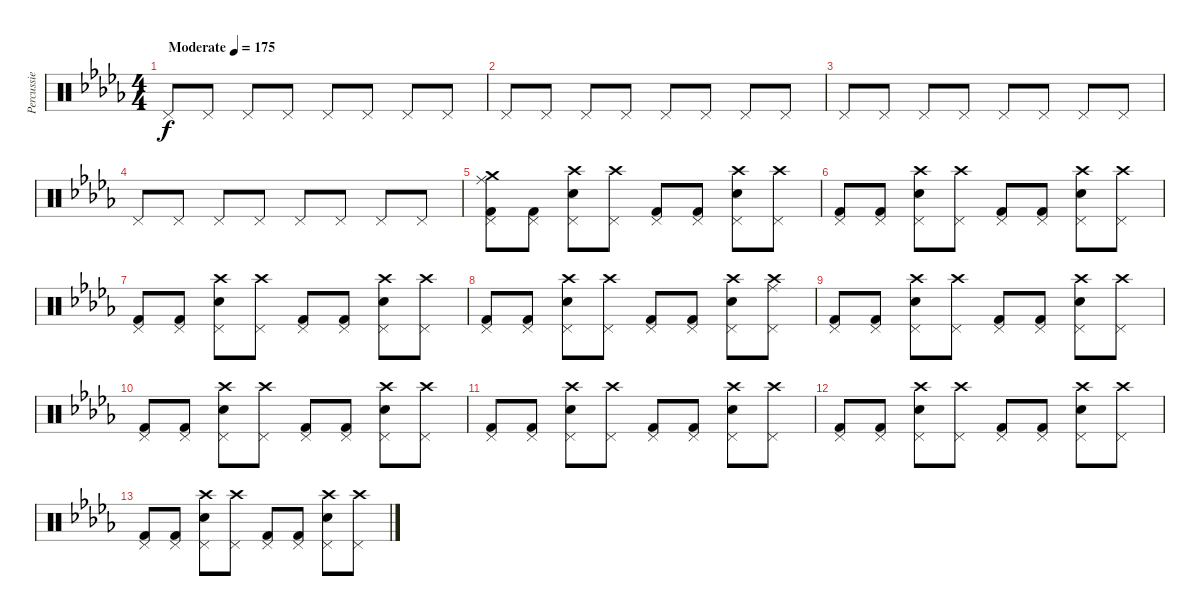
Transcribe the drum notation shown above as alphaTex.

\track ("Percussie" "Percussie") {instrument percussion}
\staff {score}
\articulation defaults
\ts (4 4)
\tempo (175 "Moderate")
\clef neutral
\ks db "Pedal Hi-Hat (hit)".8{dy f} "Pedal Hi-Hat (hit)".8 "Pedal Hi-Hat (hit)".8 "Pedal Hi-Hat (hit)".8 "Pedal Hi-Hat (hit)".8 "Pedal Hi-Hat (hit)".8 "Pedal Hi-Hat (hit)".8 "Pedal Hi-Hat (hit)".8
|
"Pedal Hi-Hat (hit)".8 "Pedal Hi-Hat (hit)".8 "Pedal Hi-Hat (hit)".8 "Pedal Hi-Hat (hit)".8 "Pedal Hi-Hat (hit)".8 "Pedal Hi-Hat (hit)".8 "Pedal Hi-Hat (hit)".8 "Pedal Hi-Hat (hit)".8 |
"Pedal Hi-Hat (hit)".8 "Pedal Hi-Hat (hit)".8 "Pedal Hi-Hat (hit)".8 "Pedal Hi-Hat (hit)".8 "Pedal Hi-Hat (hit)".8 "Pedal Hi-Hat (hit)".8 "Pedal Hi-Hat (hit)".8 "Pedal Hi-Hat (hit)".8 |
"Pedal Hi-Hat (hit)".8 "Pedal Hi-Hat (hit)".8 "Pedal Hi-Hat (hit)".8 "Pedal Hi-Hat (hit)".8 "Pedal Hi-Hat (hit)".8 "Pedal Hi-Hat (hit)".8 "Pedal Hi-Hat (hit)".8 "Pedal Hi-Hat (hit)".8 |
("Kick (hit) 2" "Ride (middle)" "Crash medium (hit)" "Pedal Hi-Hat (hit)").8 ("Kick (hit) 2" "Pedal Hi-Hat (hit)").8 ("Snare (hit) 2" "Crash high (hit)" "Pedal Hi-Hat (hit)").8 ("Crash high (hit)" "Pedal Hi-Hat (hit)").8 ("Kick (hit) 2" "Pedal Hi-Hat (hit)").8 ("Kick (hit) 2" "Pedal Hi-Hat (hit)").8 ("Snare (hit) 2" "Crash high (hit)" "Pedal Hi-Hat (hit)").8 ("Crash high (hit)" "Pedal Hi-Hat (hit)").8 |
("Kick (hit) 2" "Pedal Hi-Hat (hit)").8 ("Kick (hit) 2" "Pedal Hi-Hat (hit)").8 ("Snare (hit) 2" "Crash high (hit)" "Pedal Hi-Hat (hit)").8 ("Crash high (hit)" "Pedal Hi-Hat (hit)").8 ("Kick (hit) 2" "Pedal Hi-Hat (hit)").8 ("Kick (hit) 2" "Pedal Hi-Hat (hit)").8 ("Snare (hit) 2" "Crash high (hit)" "Pedal Hi-Hat (hit)").8 ("Crash high (hit)" "Pedal Hi-Hat (hit)").8 |
("Kick (hit) 2" "Pedal Hi-Hat (hit)").8 ("Kick (hit) 2" "Pedal Hi-Hat (hit)").8 ("Snare (hit) 2" "Crash high (hit)" "Pedal Hi-Hat (hit)").8 ("Crash high (hit)" "Pedal Hi-Hat (hit)").8 ("Kick (hit) 2" "Pedal Hi-Hat (hit)").8 ("Kick (hit) 2" "Pedal Hi-Hat (hit)").8 ("Snare (hit) 2" "Crash high (hit)" "Pedal Hi-Hat (hit)").8 ("Crash high (hit)" "Pedal Hi-Hat (hit)").8 |
("Kick (hit) 2" "Pedal Hi-Hat (hit)").8 ("Kick (hit) 2" "Pedal Hi-Hat (hit)").8 ("Snare (hit) 2" "Crash high (hit)" "Pedal Hi-Hat (hit)").8 ("Crash high (hit)" "Pedal Hi-Hat (hit)").8 ("Kick (hit) 2" "Pedal Hi-Hat (hit)").8 ("Kick (hit) 2" "Pedal Hi-Hat (hit)").8 ("Snare (hit) 2" "Crash high (hit)" "Pedal Hi-Hat (hit)").8 ("Crash high (hit)" "Ride (middle)" "Pedal Hi-Hat (hit)").8 |
("Kick (hit) 2" "Pedal Hi-Hat (hit)").8 ("Kick (hit) 2" "Pedal Hi-Hat (hit)").8 ("Snare (hit) 2" "Crash high (hit)" "Pedal Hi-Hat (hit)").8 ("Crash high (hit)" "Pedal Hi-Hat (hit)").8 ("Kick (hit) 2" "Pedal Hi-Hat (hit)").8 ("Kick (hit) 2" "Pedal Hi-Hat (hit)").8 ("Snare (hit) 2" "Crash high (hit)" "Pedal Hi-Hat (hit)").8 ("Crash high (hit)" "Pedal Hi-Hat (hit)").8 |
("Kick (hit) 2" "Pedal Hi-Hat (hit)").8 ("Kick (hit) 2" "Pedal Hi-Hat (hit)").8 ("Snare (hit) 2" "Crash high (hit)" "Pedal Hi-Hat (hit)").8 ("Crash high (hit)" "Pedal Hi-Hat (hit)").8 ("Kick (hit) 2" "Pedal Hi-Hat (hit)").8 ("Kick (hit) 2" "Pedal Hi-Hat (hit)").8 ("Snare (hit) 2" "Crash high (hit)" "Pedal Hi-Hat (hit)").8 ("Crash high (hit)" "Pedal Hi-Hat (hit)").8 |
("Kick (hit) 2" "Pedal Hi-Hat (hit)").8 ("Kick (hit) 2" "Pedal Hi-Hat (hit)").8 ("Snare (hit) 2" "Crash high (hit)" "Pedal Hi-Hat (hit)").8 ("Crash high (hit)" "Pedal Hi-Hat (hit)").8 ("Kick (hit) 2" "Pedal Hi-Hat (hit)").8 ("Kick (hit) 2" "Pedal Hi-Hat (hit)").8 ("Snare (hit) 2" "Crash high (hit)" "Pedal Hi-Hat (hit)").8 ("Crash high (hit)" "Pedal Hi-Hat (hit)").8 |
("Kick (hit) 2" "Pedal Hi-Hat (hit)").8 ("Kick (hit) 2" "Pedal Hi-Hat (hit)").8 ("Snare (hit) 2" "Crash high (hit)" "Pedal Hi-Hat (hit)").8 ("Crash high (hit)" "Pedal Hi-Hat (hit)").8 ("Kick (hit) 2" "Pedal Hi-Hat (hit)").8 ("Kick (hit) 2" "Pedal Hi-Hat (hit)").8 ("Snare (hit) 2" "Crash high (hit)" "Pedal Hi-Hat (hit)").8 ("Crash high (hit)" "Pedal Hi-Hat (hit)").8 |
("Kick (hit) 2" "Pedal Hi-Hat (hit)").8 ("Kick (hit) 2" "Pedal Hi-Hat (hit)").8 ("Snare (hit) 2" "Crash high (hit)" "Pedal Hi-Hat (hit)").8 ("Crash high (hit)" "Pedal Hi-Hat (hit)").8 ("Kick (hit) 2" "Pedal Hi-Hat (hit)").8 ("Kick (hit) 2" "Pedal Hi-Hat (hit)").8 ("Snare (hit) 2" "Crash high (hit)" "Pedal Hi-Hat (hit)").8 ("Crash high (hit)" "Pedal Hi-Hat (hit)").8
